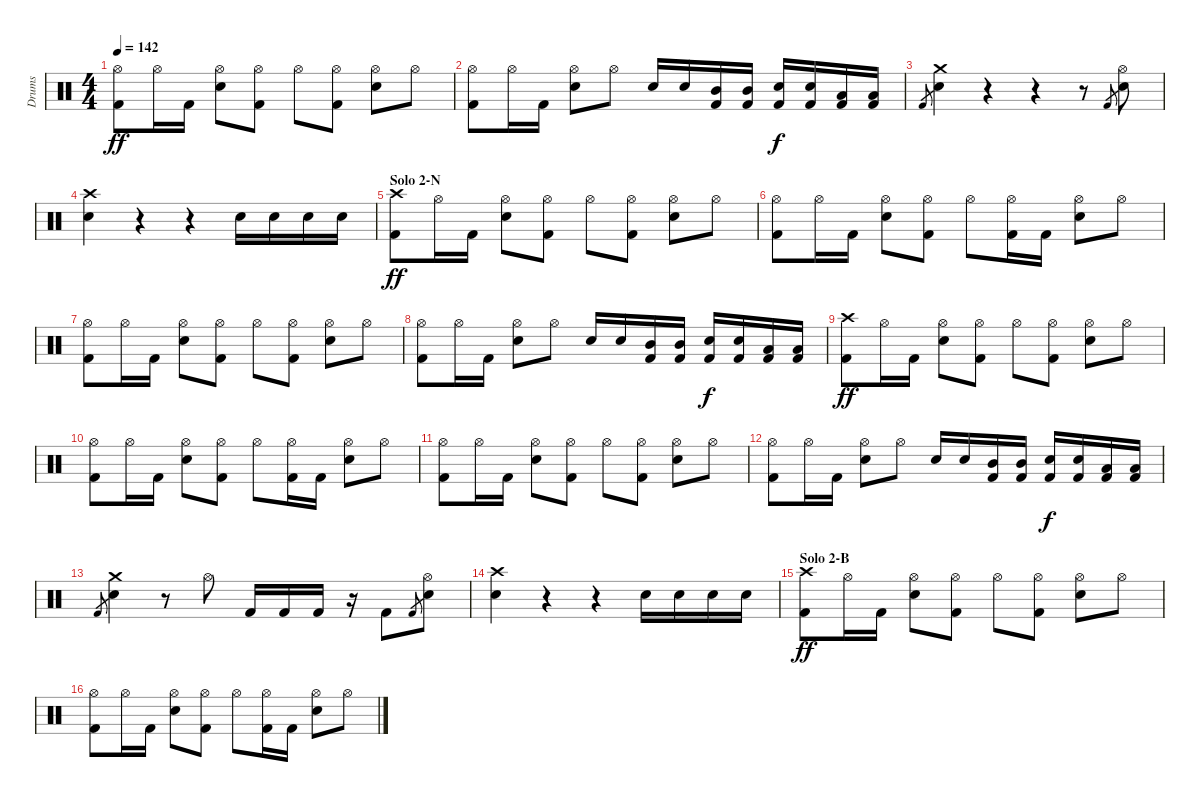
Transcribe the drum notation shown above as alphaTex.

\track ("Drums" "Drums") {instrument percussion}
\staff {score}
\articulation defaults
\ts (4 4)
\tempo 142
\clef neutral
\ks c
("Kick (hit) 2" "Hi-Hat (open)").8{dy ff} "Hi-Hat (open)".16 "Kick (hit) 2".16 ("Hi-Hat (open)" "Electric Snare (hit)").8 ("Kick (hit) 2" "Hi-Hat (open)").8 "Hi-Hat (open)".8 ("Kick (hit) 2" "Hi-Hat (open)").8 ("Hi-Hat (open)" "Electric Snare (hit)").8 "Hi-Hat (open)".8 |
("Kick (hit) 2" "Hi-Hat (open)").8 "Hi-Hat (open)".16 "Kick (hit) 2".16 ("Hi-Hat (open)" "Electric Snare (hit)").8 "Hi-Hat (open)".8 "Electric Snare (hit)".16 "Electric Snare (hit)".16 ("Kick (hit) 2" "Mid Tom (hit)").16 ("Kick (hit) 2" "Mid Tom (hit)").16 ("Kick (hit) 2" "Electric Snare (hit)").16{dy f} ("Kick (hit) 2" "Electric Snare (hit)").16 ("Kick (hit) 2" "Low Tom (hit)").16 ("Kick (hit) 2" "Low Tom (hit)").16 |
"Kick (hit) 2".8{gr} ("Crash medium (hit)" "Snare (hit) 2").4 r.4 r.4 r.8 "Kick (hit) 2".8{gr} ("Hi-Hat (open)" "Snare (hit) 2").8 |
("Crash high (hit)" "Electric Snare (hit)").4 r.4 r.4 "Electric Snare (hit)".16 "Electric Snare (hit)".16 "Electric Snare (hit)".16 "Electric Snare (hit)".16 |
\section ("" "Solo 2-N")
("Kick (hit) 2" "Crash high (hit)").8{dy ff} "Hi-Hat (open)".16 "Kick (hit) 2".16 ("Hi-Hat (open)" "Electric Snare (hit)").8 ("Kick (hit) 2" "Hi-Hat (open)").8 "Hi-Hat (open)".8 ("Kick (hit) 2" "Hi-Hat (open)").8 ("Hi-Hat (open)" "Electric Snare (hit)").8 "Hi-Hat (open)".8 |
("Kick (hit) 2" "Hi-Hat (open)").8 "Hi-Hat (open)".16 "Kick (hit) 2".16 ("Hi-Hat (open)" "Electric Snare (hit)").8 ("Kick (hit) 2" "Hi-Hat (open)").8 "Hi-Hat (open)".8 ("Kick (hit) 2" "Hi-Hat (open)").16 "Kick (hit) 2".16 ("Hi-Hat (open)" "Electric Snare (hit)").8 "Hi-Hat (open)".8 |
("Kick (hit) 2" "Hi-Hat (open)").8 "Hi-Hat (open)".16 "Kick (hit) 2".16 ("Hi-Hat (open)" "Electric Snare (hit)").8 ("Kick (hit) 2" "Hi-Hat (open)").8 "Hi-Hat (open)".8 ("Kick (hit) 2" "Hi-Hat (open)").8 ("Hi-Hat (open)" "Electric Snare (hit)").8 "Hi-Hat (open)".8 |
("Kick (hit) 2" "Hi-Hat (open)").8 "Hi-Hat (open)".16 "Kick (hit) 2".16 ("Hi-Hat (open)" "Electric Snare (hit)").8 "Hi-Hat (open)".8 "Electric Snare (hit)".16 "Electric Snare (hit)".16 ("Kick (hit) 2" "Mid Tom (hit)").16 ("Kick (hit) 2" "Mid Tom (hit)").16 ("Kick (hit) 2" "Electric Snare (hit)").16{dy f} ("Kick (hit) 2" "Electric Snare (hit)").16 ("Kick (hit) 2" "Low Tom (hit)").16 ("Kick (hit) 2" "Low Tom (hit)").16 |
("Kick (hit) 2" "Crash high (hit)").8{dy ff} "Hi-Hat (open)".16 "Kick (hit) 2".16 ("Hi-Hat (open)" "Electric Snare (hit)").8 ("Kick (hit) 2" "Hi-Hat (open)").8 "Hi-Hat (open)".8 ("Kick (hit) 2" "Hi-Hat (open)").8 ("Hi-Hat (open)" "Electric Snare (hit)").8 "Hi-Hat (open)".8 |
("Kick (hit) 2" "Hi-Hat (open)").8 "Hi-Hat (open)".16 "Kick (hit) 2".16 ("Hi-Hat (open)" "Electric Snare (hit)").8 ("Kick (hit) 2" "Hi-Hat (open)").8 "Hi-Hat (open)".8 ("Kick (hit) 2" "Hi-Hat (open)").16 "Kick (hit) 2".16 ("Hi-Hat (open)" "Electric Snare (hit)").8 "Hi-Hat (open)".8 |
("Kick (hit) 2" "Hi-Hat (open)").8 "Hi-Hat (open)".16 "Kick (hit) 2".16 ("Hi-Hat (open)" "Electric Snare (hit)").8 ("Kick (hit) 2" "Hi-Hat (open)").8 "Hi-Hat (open)".8 ("Kick (hit) 2" "Hi-Hat (open)").8 ("Hi-Hat (open)" "Electric Snare (hit)").8 "Hi-Hat (open)".8 |
("Kick (hit) 2" "Hi-Hat (open)").8 "Hi-Hat (open)".16 "Kick (hit) 2".16 ("Hi-Hat (open)" "Electric Snare (hit)").8 "Hi-Hat (open)".8 "Electric Snare (hit)".16 "Electric Snare (hit)".16 ("Kick (hit) 2" "Mid Tom (hit)").16 ("Kick (hit) 2" "Mid Tom (hit)").16 ("Kick (hit) 2" "Electric Snare (hit)").16{dy f} ("Kick (hit) 2" "Electric Snare (hit)").16 ("Kick (hit) 2" "Low Tom (hit)").16 ("Kick (hit) 2" "Low Tom (hit)").16 |
"Kick (hit) 2".8{gr} ("Crash medium (hit)" "Snare (hit) 2").4 r.8 "Hi-Hat (open)".8 "Kick (hit) 2".16 "Kick (hit) 2".16 "Kick (hit) 2".16 r.16 "Kick (hit) 2".8 "Kick (hit) 2".8{gr} ("Hi-Hat (open)" "Snare (hit) 2").8 |
("Crash high (hit)" "Electric Snare (hit)").4 r.4 r.4 "Electric Snare (hit)".16 "Electric Snare (hit)".16 "Electric Snare (hit)".16 "Electric Snare (hit)".16 |
\section ("" "Solo 2-B")
("Kick (hit) 2" "Crash high (hit)").8{dy ff} "Hi-Hat (open)".16 "Kick (hit) 2".16 ("Hi-Hat (open)" "Electric Snare (hit)").8 ("Kick (hit) 2" "Hi-Hat (open)").8 "Hi-Hat (open)".8 ("Kick (hit) 2" "Hi-Hat (open)").8 ("Hi-Hat (open)" "Electric Snare (hit)").8 "Hi-Hat (open)".8 |
("Kick (hit) 2" "Hi-Hat (open)").8 "Hi-Hat (open)".16 "Kick (hit) 2".16 ("Hi-Hat (open)" "Electric Snare (hit)").8 ("Kick (hit) 2" "Hi-Hat (open)").8 "Hi-Hat (open)".8 ("Kick (hit) 2" "Hi-Hat (open)").16 "Kick (hit) 2".16 ("Hi-Hat (open)" "Electric Snare (hit)").8 "Hi-Hat (open)".8
